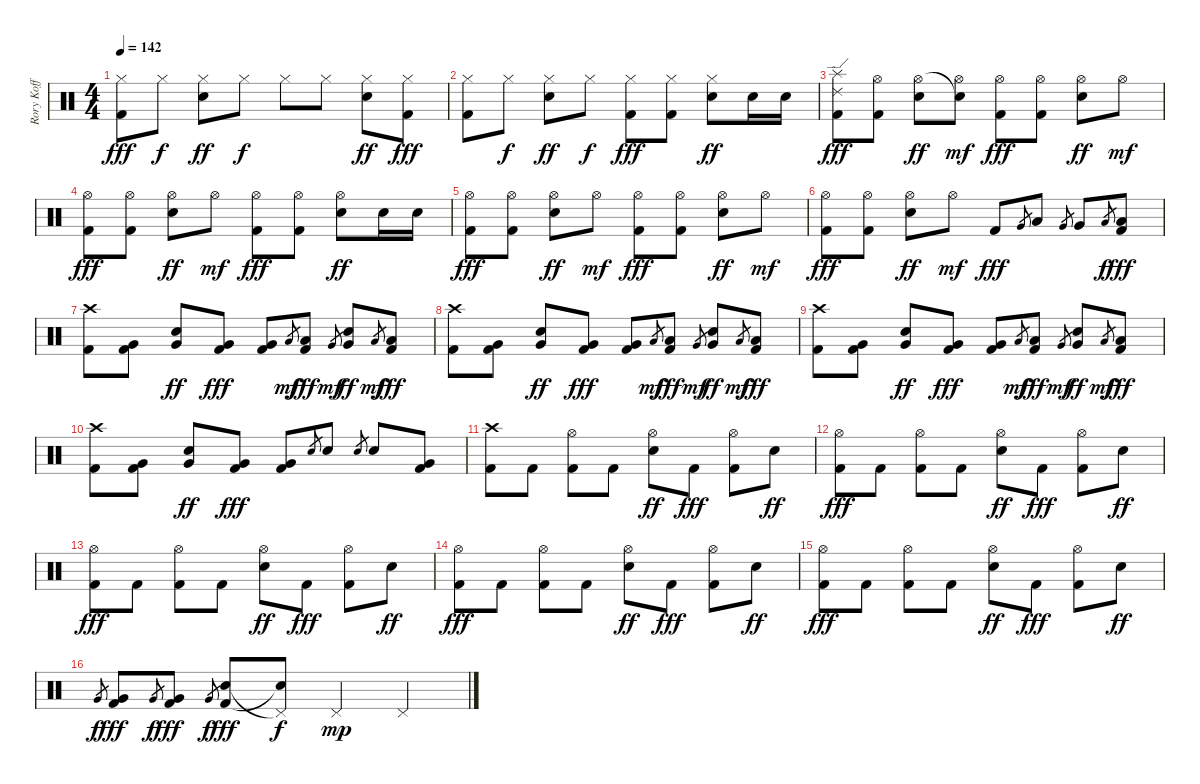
\track ("Rory Koff" "Rory Koff") {instrument percussion}
\staff {score}
\articulation defaults
\ts (4 4)
\tempo 142
\clef neutral
\ks c
("Hi-Hat (closed)" "Kick (hit) 2").8{dy fff} "Hi-Hat (closed)".8{dy f} ("Hi-Hat (closed)" "Electric Snare (hit)").8{dy ff} "Hi-Hat (closed)".8{dy f} "Hi-Hat (closed)".8 "Hi-Hat (closed)".8 ("Hi-Hat (closed)" "Electric Snare (hit)").8{dy ff} ("Hi-Hat (closed)" "Kick (hit) 2").8{dy fff} |
("Hi-Hat (closed)" "Kick (hit) 2").8 "Hi-Hat (closed)".8{dy f} ("Hi-Hat (closed)" "Electric Snare (hit)").8{dy ff} "Hi-Hat (closed)".8{dy f} ("Hi-Hat (closed)" "Kick (hit) 2").8{dy fff} ("Hi-Hat (closed)" "Kick (hit) 2").8 ("Hi-Hat (closed)" "Electric Snare (hit)").8{dy ff} "Electric Snare (hit)".16 "Electric Snare (hit)".16 |
("Splash (hit)" "Ride (edge) 2" "Kick (hit) 2").8{dy fff} ("Hi-Hat (open)" "Kick (hit) 2").8 ("Hi-Hat (open)" "Electric Snare (hit)").8{dy ff} ("Snare (hit)"{t} "Hi-Hat (open)").8{dy mf} ("Hi-Hat (open)" "Kick (hit) 2").8{dy fff} ("Hi-Hat (open)" "Kick (hit) 2").8 ("Hi-Hat (open)" "Electric Snare (hit)").8{dy ff} "Hi-Hat (open)".8{dy mf} |
("Hi-Hat (open)" "Kick (hit) 2").8{dy fff} ("Hi-Hat (open)" "Kick (hit) 2").8 ("Hi-Hat (open)" "Electric Snare (hit)").8{dy ff} "Hi-Hat (open)".8{dy mf} ("Hi-Hat (open)" "Kick (hit) 2").8{dy fff} ("Hi-Hat (open)" "Kick (hit) 2").8 ("Hi-Hat (open)" "Electric Snare (hit)").8{dy ff} "Electric Snare (hit)".16 "Electric Snare (hit)".16 |
("Hi-Hat (open)" "Kick (hit) 2").8{dy fff} ("Hi-Hat (open)" "Kick (hit) 2").8 ("Hi-Hat (open)" "Electric Snare (hit)").8{dy ff} "Hi-Hat (open)".8{dy mf} ("Hi-Hat (open)" "Kick (hit) 2").8{dy fff} ("Hi-Hat (open)" "Kick (hit) 2").8 ("Hi-Hat (open)" "Electric Snare (hit)").8{dy ff} "Hi-Hat (open)".8{dy mf} |
("Hi-Hat (open)" "Kick (hit) 2").8{dy fff} ("Hi-Hat (open)" "Kick (hit) 2").8 ("Hi-Hat (open)" "Electric Snare (hit)").8{dy ff} "Hi-Hat (open)".8{dy mf} "Kick (hit) 2".8{dy fff} "Very Low Tom (hit)".8{gr} "Low Tom (hit)".8 "Very Low Tom (hit)".8{gr} "Very Low Tom (hit)".8 "Low Floor Tom (hit)".8{gr dy f} ("Low Floor Tom (hit)" "Kick (hit) 2").8{dy fff} |
("Crash high (hit)" "Kick (hit) 2").8 ("Very Low Tom (hit)" "Kick (hit) 2").8 ("Very Low Tom (hit)" "Electric Snare (hit)").8{dy ff} ("Very Low Tom (hit)" "Kick (hit) 2").8{dy fff} ("Very Low Tom (hit)" "Kick (hit) 2").8 "Low Tom (hit)".8{gr dy mf} ("Low Tom (hit)" "Kick (hit) 2").8{dy fff} "Very Low Tom (hit)".8{gr dy mf} ("Very Low Tom (hit)" "Electric Snare (hit)").8{dy ff} "Low Floor Tom (hit)".8{gr dy mf} ("Low Floor Tom (hit)" "Kick (hit) 2").8{dy fff} |
("Crash high (hit)" "Kick (hit) 2").8 ("Very Low Tom (hit)" "Kick (hit) 2").8 ("Very Low Tom (hit)" "Electric Snare (hit)").8{dy ff} ("Very Low Tom (hit)" "Kick (hit) 2").8{dy fff} ("Very Low Tom (hit)" "Kick (hit) 2").8 "Low Tom (hit)".8{gr dy mf} ("Low Tom (hit)" "Kick (hit) 2").8{dy fff} "Very Low Tom (hit)".8{gr dy mf} ("Very Low Tom (hit)" "Electric Snare (hit)").8{dy ff} "Low Floor Tom (hit)".8{gr dy mf} ("Low Floor Tom (hit)" "Kick (hit) 2").8{dy fff} |
("Crash high (hit)" "Kick (hit) 2").8 ("Very Low Tom (hit)" "Kick (hit) 2").8 ("Very Low Tom (hit)" "Electric Snare (hit)").8{dy ff} ("Very Low Tom (hit)" "Kick (hit) 2").8{dy fff} ("Very Low Tom (hit)" "Kick (hit) 2").8 "Low Tom (hit)".8{gr dy mf} ("Low Tom (hit)" "Kick (hit) 2").8{dy fff} "Very Low Tom (hit)".8{gr dy mf} ("Very Low Tom (hit)" "Electric Snare (hit)").8{dy ff} "Low Floor Tom (hit)".8{gr dy mf} ("Low Floor Tom (hit)" "Kick (hit) 2").8{dy fff} |
("Crash high (hit)" "Kick (hit) 2").8 ("Very Low Tom (hit)" "Kick (hit) 2").8 ("Very Low Tom (hit)" "Electric Snare (hit)").8{dy ff} ("Very Low Tom (hit)" "Kick (hit) 2").8{dy fff} ("Very Low Tom (hit)" "Kick (hit) 2").8 "Electric Snare (hit)".8{gr} "Electric Snare (hit)".8 "Electric Snare (hit)".8{gr} "Electric Snare (hit)".8 ("Very Low Tom (hit)" "Kick (hit) 2").8 |
("Crash high (hit)" "Kick (hit) 2").8 "Kick (hit) 2".8 ("Hi-Hat (open)" "Kick (hit) 2").8 "Kick (hit) 2".8 ("Hi-Hat (open)" "Electric Snare (hit)").8{dy ff} "Kick (hit) 2".8{dy fff} ("Hi-Hat (open)" "Kick (hit) 2").8 "Electric Snare (hit)".8{dy ff} |
("Hi-Hat (open)" "Kick (hit) 2").8{dy fff} "Kick (hit) 2".8 ("Hi-Hat (open)" "Kick (hit) 2").8 "Kick (hit) 2".8 ("Hi-Hat (open)" "Electric Snare (hit)").8{dy ff} "Kick (hit) 2".8{dy fff} ("Hi-Hat (open)" "Kick (hit) 2").8 "Electric Snare (hit)".8{dy ff} |
("Hi-Hat (open)" "Kick (hit) 2").8{dy fff} "Kick (hit) 2".8 ("Hi-Hat (open)" "Kick (hit) 2").8 "Kick (hit) 2".8 ("Hi-Hat (open)" "Electric Snare (hit)").8{dy ff} "Kick (hit) 2".8{dy fff} ("Hi-Hat (open)" "Kick (hit) 2").8 "Electric Snare (hit)".8{dy ff} |
("Hi-Hat (open)" "Kick (hit) 2").8{dy fff} "Kick (hit) 2".8 ("Hi-Hat (open)" "Kick (hit) 2").8 "Kick (hit) 2".8 ("Hi-Hat (open)" "Electric Snare (hit)").8{dy ff} "Kick (hit) 2".8{dy fff} ("Hi-Hat (open)" "Kick (hit) 2").8 "Electric Snare (hit)".8{dy ff} |
("Hi-Hat (open)" "Kick (hit) 2").8{dy fff} "Kick (hit) 2".8 ("Hi-Hat (open)" "Kick (hit) 2").8 "Kick (hit) 2".8 ("Hi-Hat (open)" "Electric Snare (hit)").8{dy ff} "Kick (hit) 2".8{dy fff} ("Hi-Hat (open)" "Kick (hit) 2").8 "Electric Snare (hit)".8{dy ff} |
"Very Low Tom (hit)".8{gr dy f} ("Very Low Tom (hit)" "Kick (hit) 2").8{dy fff} "Very Low Tom (hit)".8{gr dy f} ("Very Low Tom (hit)" "Kick (hit) 2").8{dy fff} "Very Low Tom (hit)".8{gr dy f} ("Electric Snare (hit)" "Kick (hit) 2").8{dy fff} ("Pedal Hi-Hat (hit)"{t} "Snare (hit)"{t}).8{dy f} "Pedal Hi-Hat (hit)".4{dy mp} "Pedal Hi-Hat (hit)".4
